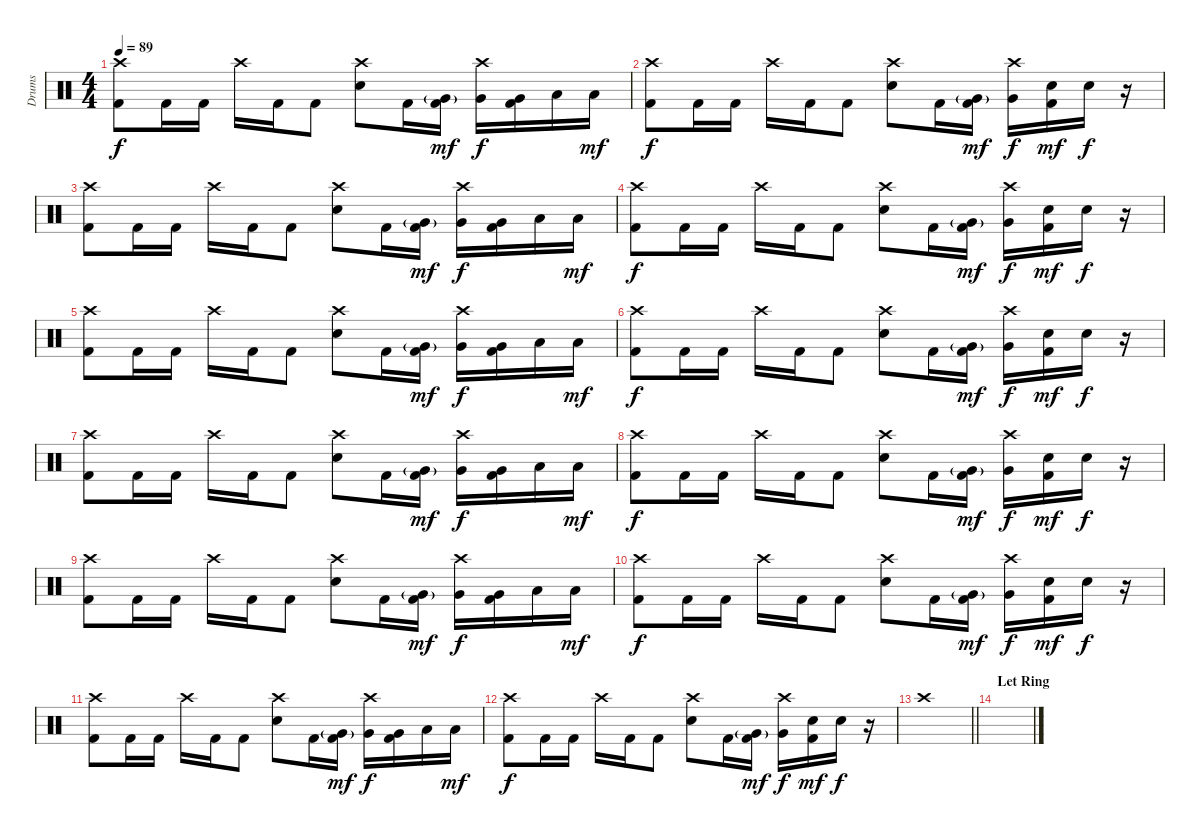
\track ("Drums" "Drums") {instrument percussion}
\staff {score}
\articulation defaults
\ts (4 4)
\tempo 89
\clef neutral
\ks c
("Crash high (hit)" "Kick (hit) 2").8{dy f} "Kick (hit) 2".16 "Kick (hit) 2".16 "Crash high (hit)".16 "Kick (hit) 2".16 "Kick (hit) 2".8 ("Crash high (hit)" "Electric Snare (hit)").8 "Kick (hit) 2".16 ("Very Low Tom (hit)"{g} "Kick (hit) 2").16{dy mf} ("Crash high (hit)" "Very Low Tom (hit)").16{dy f} ("Very Low Tom (hit)" "Kick (hit) 2").16 "Low Floor Tom (hit)".16 "Low Floor Tom (hit)".16{dy mf} |
("Crash high (hit)" "Kick (hit) 2").8{dy f} "Kick (hit) 2".16 "Kick (hit) 2".16 "Crash high (hit)".16 "Kick (hit) 2".16 "Kick (hit) 2".8 ("Crash high (hit)" "Electric Snare (hit)").8 "Kick (hit) 2".16 ("Very Low Tom (hit)"{g} "Kick (hit) 2").16{dy mf} ("Crash high (hit)" "Very Low Tom (hit)").16{dy f} ("Electric Snare (hit)" "Kick (hit) 2").16{dy mf} "Electric Snare (hit)".16{dy f} r.16 |
("Crash high (hit)" "Kick (hit) 2").8 "Kick (hit) 2".16 "Kick (hit) 2".16 "Crash high (hit)".16 "Kick (hit) 2".16 "Kick (hit) 2".8 ("Crash high (hit)" "Electric Snare (hit)").8 "Kick (hit) 2".16 ("Very Low Tom (hit)"{g} "Kick (hit) 2").16{dy mf} ("Crash high (hit)" "Very Low Tom (hit)").16{dy f} ("Very Low Tom (hit)" "Kick (hit) 2").16 "Low Floor Tom (hit)".16 "Low Floor Tom (hit)".16{dy mf} |
("Crash high (hit)" "Kick (hit) 2").8{dy f} "Kick (hit) 2".16 "Kick (hit) 2".16 "Crash high (hit)".16 "Kick (hit) 2".16 "Kick (hit) 2".8 ("Crash high (hit)" "Electric Snare (hit)").8 "Kick (hit) 2".16 ("Very Low Tom (hit)"{g} "Kick (hit) 2").16{dy mf} ("Crash high (hit)" "Very Low Tom (hit)").16{dy f} ("Electric Snare (hit)" "Kick (hit) 2").16{dy mf} "Electric Snare (hit)".16{dy f} r.16 |
("Crash high (hit)" "Kick (hit) 2").8 "Kick (hit) 2".16 "Kick (hit) 2".16 "Crash high (hit)".16 "Kick (hit) 2".16 "Kick (hit) 2".8 ("Crash high (hit)" "Electric Snare (hit)").8 "Kick (hit) 2".16 ("Very Low Tom (hit)"{g} "Kick (hit) 2").16{dy mf} ("Crash high (hit)" "Very Low Tom (hit)").16{dy f} ("Very Low Tom (hit)" "Kick (hit) 2").16 "Low Floor Tom (hit)".16 "Low Floor Tom (hit)".16{dy mf} |
("Crash high (hit)" "Kick (hit) 2").8{dy f} "Kick (hit) 2".16 "Kick (hit) 2".16 "Crash high (hit)".16 "Kick (hit) 2".16 "Kick (hit) 2".8 ("Crash high (hit)" "Electric Snare (hit)").8 "Kick (hit) 2".16 ("Very Low Tom (hit)"{g} "Kick (hit) 2").16{dy mf} ("Crash high (hit)" "Very Low Tom (hit)").16{dy f} ("Electric Snare (hit)" "Kick (hit) 2").16{dy mf} "Electric Snare (hit)".16{dy f} r.16 |
("Crash high (hit)" "Kick (hit) 2").8 "Kick (hit) 2".16 "Kick (hit) 2".16 "Crash high (hit)".16 "Kick (hit) 2".16 "Kick (hit) 2".8 ("Crash high (hit)" "Electric Snare (hit)").8 "Kick (hit) 2".16 ("Very Low Tom (hit)"{g} "Kick (hit) 2").16{dy mf} ("Crash high (hit)" "Very Low Tom (hit)").16{dy f} ("Very Low Tom (hit)" "Kick (hit) 2").16 "Low Floor Tom (hit)".16 "Low Floor Tom (hit)".16{dy mf} |
("Crash high (hit)" "Kick (hit) 2").8{dy f} "Kick (hit) 2".16 "Kick (hit) 2".16 "Crash high (hit)".16 "Kick (hit) 2".16 "Kick (hit) 2".8 ("Crash high (hit)" "Electric Snare (hit)").8 "Kick (hit) 2".16 ("Very Low Tom (hit)"{g} "Kick (hit) 2").16{dy mf} ("Crash high (hit)" "Very Low Tom (hit)").16{dy f} ("Electric Snare (hit)" "Kick (hit) 2").16{dy mf} "Electric Snare (hit)".16{dy f} r.16 |
("Crash high (hit)" "Kick (hit) 2").8 "Kick (hit) 2".16 "Kick (hit) 2".16 "Crash high (hit)".16 "Kick (hit) 2".16 "Kick (hit) 2".8 ("Crash high (hit)" "Electric Snare (hit)").8 "Kick (hit) 2".16 ("Very Low Tom (hit)"{g} "Kick (hit) 2").16{dy mf} ("Crash high (hit)" "Very Low Tom (hit)").16{dy f} ("Very Low Tom (hit)" "Kick (hit) 2").16 "Low Floor Tom (hit)".16 "Low Floor Tom (hit)".16{dy mf} |
("Crash high (hit)" "Kick (hit) 2").8{dy f} "Kick (hit) 2".16 "Kick (hit) 2".16 "Crash high (hit)".16 "Kick (hit) 2".16 "Kick (hit) 2".8 ("Crash high (hit)" "Electric Snare (hit)").8 "Kick (hit) 2".16 ("Very Low Tom (hit)"{g} "Kick (hit) 2").16{dy mf} ("Crash high (hit)" "Very Low Tom (hit)").16{dy f} ("Electric Snare (hit)" "Kick (hit) 2").16{dy mf} "Electric Snare (hit)".16{dy f} r.16 |
("Crash high (hit)" "Kick (hit) 2").8 "Kick (hit) 2".16 "Kick (hit) 2".16 "Crash high (hit)".16 "Kick (hit) 2".16 "Kick (hit) 2".8 ("Crash high (hit)" "Electric Snare (hit)").8 "Kick (hit) 2".16 ("Very Low Tom (hit)"{g} "Kick (hit) 2").16{dy mf} ("Crash high (hit)" "Very Low Tom (hit)").16{dy f} ("Very Low Tom (hit)" "Kick (hit) 2").16 "Low Floor Tom (hit)".16 "Low Floor Tom (hit)".16{dy mf} |
("Crash high (hit)" "Kick (hit) 2").8{dy f} "Kick (hit) 2".16 "Kick (hit) 2".16 "Crash high (hit)".16 "Kick (hit) 2".16 "Kick (hit) 2".8 ("Crash high (hit)" "Electric Snare (hit)").8 "Kick (hit) 2".16 ("Very Low Tom (hit)"{g} "Kick (hit) 2").16{dy mf} ("Crash high (hit)" "Very Low Tom (hit)").16{dy f} ("Electric Snare (hit)" "Kick (hit) 2").16{dy mf} "Electric Snare (hit)".16{dy f} r.16 |
\barLineRight lightlight "Crash high (hit)".1
|
\section ("" "Let Ring")
